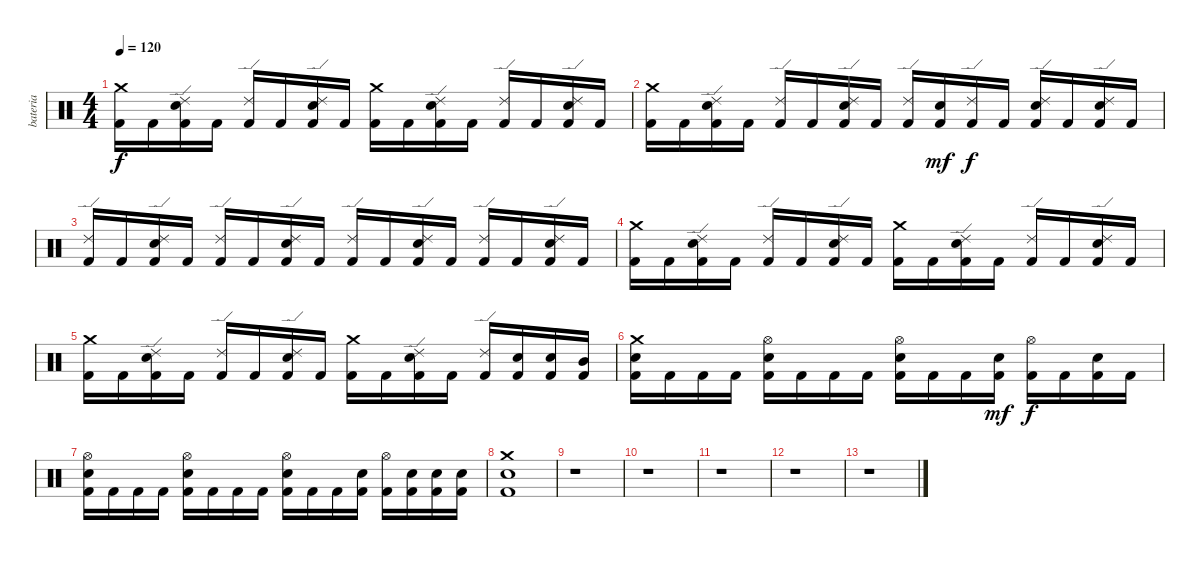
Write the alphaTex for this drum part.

\track ("bateria" "bateria") {instrument percussion}
\staff {score}
\articulation defaults
\ts (4 4)
\tempo 120
\clef neutral
\ks c
("Crash medium (hit)" "Kick (hit) 2").16{dy f} "Kick (hit) 2".16 ("Ride (edge) 2" "Electric Snare (hit)" "Kick (hit) 2").16 "Kick (hit) 2".16 ("Ride (edge) 2" "Kick (hit) 2").16 "Kick (hit) 2".16 ("Ride (edge) 2" "Electric Snare (hit)" "Kick (hit) 2").16 "Kick (hit) 2".16 ("Crash medium (hit)" "Kick (hit) 2").16 "Kick (hit) 2".16 ("Ride (edge) 2" "Electric Snare (hit)" "Kick (hit) 2").16 "Kick (hit) 2".16 ("Ride (edge) 2" "Kick (hit) 2").16 "Kick (hit) 2".16 ("Ride (edge) 2" "Electric Snare (hit)" "Kick (hit) 2").16 "Kick (hit) 2".16 |
("Crash medium (hit)" "Kick (hit) 2").16 "Kick (hit) 2".16 ("Ride (edge) 2" "Electric Snare (hit)" "Kick (hit) 2").16 "Kick (hit) 2".16 ("Ride (edge) 2" "Kick (hit) 2").16 "Kick (hit) 2".16 ("Ride (edge) 2" "Electric Snare (hit)" "Kick (hit) 2").16 "Kick (hit) 2".16 ("Ride (edge) 2" "Kick (hit) 2").16 ("Electric Snare (hit)" "Kick (hit) 2").16{dy mf} ("Ride (edge) 2" "Kick (hit) 2").16{dy f} "Kick (hit) 2".16 ("Ride (edge) 2" "Electric Snare (hit)" "Kick (hit) 2").16 "Kick (hit) 2".16 ("Ride (edge) 2" "Electric Snare (hit)" "Kick (hit) 2").16 "Kick (hit) 2".16 |
("Ride (edge) 2" "Kick (hit) 2").16 "Kick (hit) 2".16 ("Ride (edge) 2" "Electric Snare (hit)" "Kick (hit) 2").16 "Kick (hit) 2".16 ("Ride (edge) 2" "Kick (hit) 2").16 "Kick (hit) 2".16 ("Ride (edge) 2" "Electric Snare (hit)" "Kick (hit) 2").16 "Kick (hit) 2".16 ("Ride (edge) 2" "Kick (hit) 2").16 "Kick (hit) 2".16 ("Ride (edge) 2" "Electric Snare (hit)" "Kick (hit) 2").16 "Kick (hit) 2".16 ("Ride (edge) 2" "Kick (hit) 2").16 "Kick (hit) 2".16 ("Ride (edge) 2" "Electric Snare (hit)" "Kick (hit) 2").16 "Kick (hit) 2".16 |
("Crash medium (hit)" "Kick (hit) 2").16 "Kick (hit) 2".16 ("Ride (edge) 2" "Electric Snare (hit)" "Kick (hit) 2").16 "Kick (hit) 2".16 ("Ride (edge) 2" "Kick (hit) 2").16 "Kick (hit) 2".16 ("Ride (edge) 2" "Electric Snare (hit)" "Kick (hit) 2").16 "Kick (hit) 2".16 ("Crash medium (hit)" "Kick (hit) 2").16 "Kick (hit) 2".16 ("Ride (edge) 2" "Electric Snare (hit)" "Kick (hit) 2").16 "Kick (hit) 2".16 ("Ride (edge) 2" "Kick (hit) 2").16 "Kick (hit) 2".16 ("Ride (edge) 2" "Electric Snare (hit)" "Kick (hit) 2").16 "Kick (hit) 2".16 |
("Crash medium (hit)" "Kick (hit) 2").16 "Kick (hit) 2".16 ("Ride (edge) 2" "Electric Snare (hit)" "Kick (hit) 2").16 "Kick (hit) 2".16 ("Ride (edge) 2" "Kick (hit) 2").16 "Kick (hit) 2".16 ("Ride (edge) 2" "Electric Snare (hit)" "Kick (hit) 2").16 "Kick (hit) 2".16 ("Crash medium (hit)" "Kick (hit) 2").16 "Kick (hit) 2".16 ("Ride (edge) 2" "Electric Snare (hit)" "Kick (hit) 2").16 "Kick (hit) 2".16 ("Ride (edge) 2" "Kick (hit) 2").16 ("Electric Snare (hit)" "Kick (hit) 2").16 ("Electric Snare (hit)" "Kick (hit) 2").16 ("Mid Tom (hit)" "Kick (hit) 2").16 |
("Crash medium (hit)" "Electric Snare (hit)" "Kick (hit) 2").16 "Kick (hit) 2".16 "Kick (hit) 2".16 "Kick (hit) 2".16 ("Hi-Hat (open)" "Electric Snare (hit)" "Kick (hit) 2").16 "Kick (hit) 2".16 "Kick (hit) 2".16 "Kick (hit) 2".16 ("Hi-Hat (open)" "Electric Snare (hit)" "Kick (hit) 2").16 "Kick (hit) 2".16 "Kick (hit) 2".16 ("Electric Snare (hit)" "Kick (hit) 2").16{dy mf} ("Hi-Hat (open)" "Kick (hit) 2").16{dy f} "Kick (hit) 2".16 ("Electric Snare (hit)" "Kick (hit) 2").16 "Kick (hit) 2".16 |
("Hi-Hat (open)" "Electric Snare (hit)" "Kick (hit) 2").16 "Kick (hit) 2".16 "Kick (hit) 2".16 "Kick (hit) 2".16 ("Hi-Hat (open)" "Electric Snare (hit)" "Kick (hit) 2").16 "Kick (hit) 2".16 "Kick (hit) 2".16 "Kick (hit) 2".16 ("Hi-Hat (open)" "Electric Snare (hit)" "Kick (hit) 2").16 "Kick (hit) 2".16 "Kick (hit) 2".16 ("Electric Snare (hit)" "Kick (hit) 2").16 ("Hi-Hat (open)" "Kick (hit) 2").16 ("Electric Snare (hit)" "Kick (hit) 2").16 ("Electric Snare (hit)" "Kick (hit) 2").16 ("Electric Snare (hit)" "Kick (hit) 2").16 |
("Crash medium (hit)" "Electric Snare (hit)" "Kick (hit) 2").1 |
r.1 |
r.1 |
r.1 |
r.1 |
r.1
